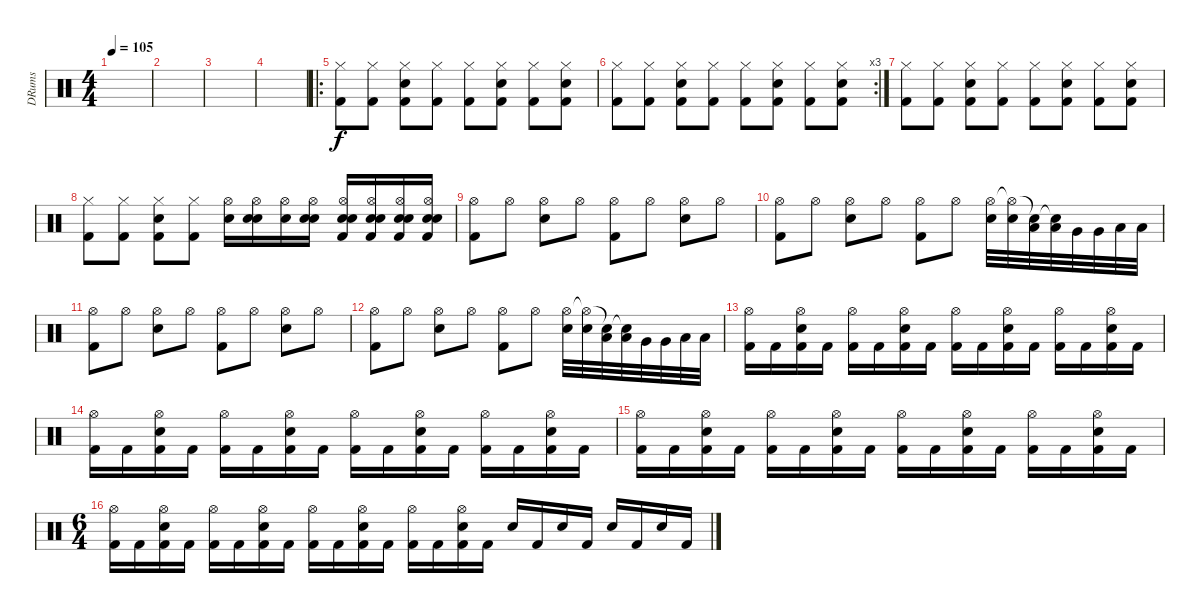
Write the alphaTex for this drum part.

\track ("DRums" "DRums") {instrument percussion}
\staff {score}
\articulation defaults
\ts (4 4)
\tempo 105
\clef neutral
\ks c
|
|
|
|
\ro
("Hi-Hat (closed)" "Kick (hit) 2").8 ("Hi-Hat (closed)" "Kick (hit) 2").8 ("Hi-Hat (closed)" "Electric Snare (hit)" "Kick (hit) 2").8 ("Hi-Hat (closed)" "Kick (hit) 2").8 ("Hi-Hat (closed)" "Kick (hit) 2").8 ("Hi-Hat (closed)" "Electric Snare (hit)" "Kick (hit) 2").8 ("Hi-Hat (closed)" "Kick (hit) 2").8 ("Hi-Hat (closed)" "Electric Snare (hit)" "Kick (hit) 2").8 |
\rc 3
("Hi-Hat (closed)" "Kick (hit) 2").8 ("Hi-Hat (closed)" "Kick (hit) 2").8 ("Hi-Hat (closed)" "Electric Snare (hit)" "Kick (hit) 2").8 ("Hi-Hat (closed)" "Kick (hit) 2").8 ("Hi-Hat (closed)" "Kick (hit) 2").8 ("Hi-Hat (closed)" "Electric Snare (hit)" "Kick (hit) 2").8 ("Hi-Hat (closed)" "Kick (hit) 2").8 ("Hi-Hat (closed)" "Electric Snare (hit)" "Kick (hit) 2").8 |
("Hi-Hat (closed)" "Kick (hit) 2").8 ("Hi-Hat (closed)" "Kick (hit) 2").8 ("Hi-Hat (closed)" "Electric Snare (hit)" "Kick (hit) 2").8 ("Hi-Hat (closed)" "Kick (hit) 2").8 ("Hi-Hat (closed)" "Kick (hit) 2").8 ("Hi-Hat (closed)" "Electric Snare (hit)" "Kick (hit) 2").8 ("Hi-Hat (closed)" "Kick (hit) 2").8 ("Hi-Hat (closed)" "Electric Snare (hit)" "Kick (hit) 2").8 |
("Hi-Hat (closed)" "Kick (hit) 2").8 ("Hi-Hat (closed)" "Kick (hit) 2").8 ("Hi-Hat (closed)" "Electric Snare (hit)" "Kick (hit) 2").8 ("Hi-Hat (closed)" "Kick (hit) 2").8 ("Hi-Hat (open)" "Electric Snare (hit)").16 ("Hi-Hat (open)" "Snare (hit) 2" "Electric Snare (hit)").16 ("Hi-Hat (open)" "Electric Snare (hit)").16 ("Hi-Hat (open)" "Snare (hit) 2" "Electric Snare (hit)").16 ("Hi-Hat (open)" "Kick (hit) 2" "Snare (hit) 2" "Electric Snare (hit)").16 ("Hi-Hat (open)" "Kick (hit) 2" "Snare (hit) 2" "Electric Snare (hit)").16 ("Hi-Hat (open)" "Kick (hit) 2" "Snare (hit) 2" "Electric Snare (hit)").16 ("Hi-Hat (open)" "Kick (hit) 2" "Snare (hit) 2" "Electric Snare (hit)").16 |
("Hi-Hat (open)" "Kick (hit) 2").8 "Hi-Hat (open)".8 ("Hi-Hat (open)" "Electric Snare (hit)").8 "Hi-Hat (open)".8 ("Hi-Hat (open)" "Kick (hit) 2").8 "Hi-Hat (open)".8 ("Hi-Hat (open)" "Electric Snare (hit)").8 "Hi-Hat (open)".8 |
("Hi-Hat (open)" "Kick (hit) 2").8 "Hi-Hat (open)".8 ("Hi-Hat (open)" "Electric Snare (hit)").8 "Hi-Hat (open)".8 ("Hi-Hat (open)" "Kick (hit) 2").8 "Hi-Hat (open)".8 ("Hi-Hat (open)" "Electric Snare (hit)").32 ("Hi-Hat (open)"{t} "Electric Snare (hit)").32 ("Snare (hit)"{t} "Low Tom (hit)").32 ("Snare (hit)"{t} "Low Tom (hit)").32 "Very Low Tom (hit)".32 "Very Low Tom (hit)".32 "Low Floor Tom (hit)".32 "Low Floor Tom (hit)".32 |
("Hi-Hat (open)" "Kick (hit) 2").8 "Hi-Hat (open)".8 ("Hi-Hat (open)" "Electric Snare (hit)").8 "Hi-Hat (open)".8 ("Hi-Hat (open)" "Kick (hit) 2").8 "Hi-Hat (open)".8 ("Hi-Hat (open)" "Electric Snare (hit)").8 "Hi-Hat (open)".8 |
("Hi-Hat (open)" "Kick (hit) 2").8 "Hi-Hat (open)".8 ("Hi-Hat (open)" "Electric Snare (hit)").8 "Hi-Hat (open)".8 ("Hi-Hat (open)" "Kick (hit) 2").8 "Hi-Hat (open)".8 ("Hi-Hat (open)" "Electric Snare (hit)").32 ("Hi-Hat (open)"{t} "Electric Snare (hit)").32 ("Snare (hit)"{t} "Low Tom (hit)").32 ("Snare (hit)"{t} "Low Tom (hit)").32 "Very Low Tom (hit)".32 "Very Low Tom (hit)".32 "Low Floor Tom (hit)".32 "Low Floor Tom (hit)".32 |
("Hi-Hat (open)" "Kick (hit) 2").16 "Kick (hit) 2".16 ("Hi-Hat (open)" "Electric Snare (hit)" "Kick (hit) 2").16 "Kick (hit) 2".16 ("Hi-Hat (open)" "Kick (hit) 2").16 "Kick (hit) 2".16 ("Hi-Hat (open)" "Electric Snare (hit)" "Kick (hit) 2").16 "Kick (hit) 2".16 ("Hi-Hat (open)" "Kick (hit) 2").16 "Kick (hit) 2".16 ("Hi-Hat (open)" "Electric Snare (hit)" "Kick (hit) 2").16 "Kick (hit) 2".16 ("Hi-Hat (open)" "Kick (hit) 2").16 "Kick (hit) 2".16 ("Hi-Hat (open)" "Electric Snare (hit)" "Kick (hit) 2").16 "Kick (hit) 2".16 |
("Hi-Hat (open)" "Kick (hit) 2").16 "Kick (hit) 2".16 ("Hi-Hat (open)" "Electric Snare (hit)" "Kick (hit) 2").16 "Kick (hit) 2".16 ("Hi-Hat (open)" "Kick (hit) 2").16 "Kick (hit) 2".16 ("Hi-Hat (open)" "Electric Snare (hit)" "Kick (hit) 2").16 "Kick (hit) 2".16 ("Hi-Hat (open)" "Kick (hit) 2").16 "Kick (hit) 2".16 ("Hi-Hat (open)" "Electric Snare (hit)" "Kick (hit) 2").16 "Kick (hit) 2".16 ("Hi-Hat (open)" "Kick (hit) 2").16 "Kick (hit) 2".16 ("Hi-Hat (open)" "Electric Snare (hit)" "Kick (hit) 2").16 "Kick (hit) 2".16 |
("Hi-Hat (open)" "Kick (hit) 2").16 "Kick (hit) 2".16 ("Hi-Hat (open)" "Electric Snare (hit)" "Kick (hit) 2").16 "Kick (hit) 2".16 ("Hi-Hat (open)" "Kick (hit) 2").16 "Kick (hit) 2".16 ("Hi-Hat (open)" "Electric Snare (hit)" "Kick (hit) 2").16 "Kick (hit) 2".16 ("Hi-Hat (open)" "Kick (hit) 2").16 "Kick (hit) 2".16 ("Hi-Hat (open)" "Electric Snare (hit)" "Kick (hit) 2").16 "Kick (hit) 2".16 ("Hi-Hat (open)" "Kick (hit) 2").16 "Kick (hit) 2".16 ("Hi-Hat (open)" "Electric Snare (hit)" "Kick (hit) 2").16 "Kick (hit) 2".16 |
\ts (6 4)
("Hi-Hat (open)" "Kick (hit) 2").16 "Kick (hit) 2".16 ("Hi-Hat (open)" "Electric Snare (hit)" "Kick (hit) 2").16 "Kick (hit) 2".16 ("Hi-Hat (open)" "Kick (hit) 2").16 "Kick (hit) 2".16 ("Hi-Hat (open)" "Electric Snare (hit)" "Kick (hit) 2").16 "Kick (hit) 2".16 ("Hi-Hat (open)" "Kick (hit) 2").16 "Kick (hit) 2".16 ("Hi-Hat (open)" "Electric Snare (hit)" "Kick (hit) 2").16 "Kick (hit) 2".16 ("Hi-Hat (open)" "Kick (hit) 2").16 "Kick (hit) 2".16 ("Hi-Hat (open)" "Electric Snare (hit)" "Kick (hit) 2").16 "Kick (hit) 2".16 "Electric Snare (hit)".16 "Kick (hit) 2".16 "Electric Snare (hit)".16 "Kick (hit) 2".16 "Electric Snare (hit)".16 "Kick (hit) 2".16 "Electric Snare (hit)".16 "Kick (hit) 2".16
